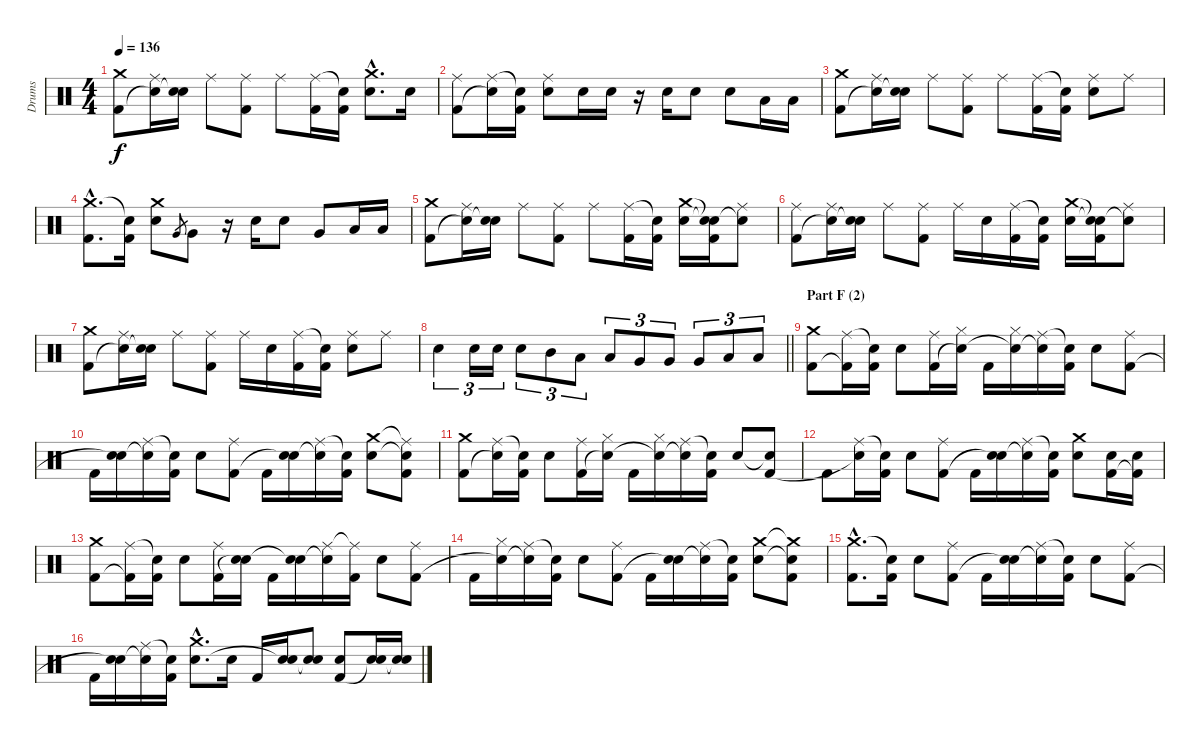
\track ("Drums" "Drums") {instrument percussion}
\staff {score}
\articulation defaults
\ts (4 4)
\tempo 136
\clef neutral
\ks c
("Crash medium (hit)" "Kick (hit) 2").8{dy f} ("Ride (middle)" "Snare (hit)"{t}).16 ("Electric Snare (hit)" "Snare (hit)"{t}).16 "Ride (middle)".8 ("Ride (middle)" "Kick (hit) 2").8 "Ride (middle)".8 ("Ride (middle)" "Kick (hit) 2").16 ("Snare (hit)"{t} "Kick (hit) 2").16 ("Crash medium (hit)"{hac} "Electric Snare (hit)"{hac}).8{d} "Electric Snare (hit)".16 |
("Ride (middle)" "Kick (hit) 2").8 ("Ride (middle)" "Snare (hit)"{t}).16 ("Snare (hit)"{t} "Kick (hit) 2").16 ("Ride (middle)" "Electric Snare (hit)").8 "Electric Snare (hit)".16 "Electric Snare (hit)".16 r.16 "Electric Snare (hit)".16 "Electric Snare (hit)".8 "Electric Snare (hit)".8 "Low Floor Tom (hit)".16 "Low Floor Tom (hit)".16 |
("Crash medium (hit)" "Kick (hit) 2").8 ("Ride (middle)" "Snare (hit)"{t}).16 ("Electric Snare (hit)" "Snare (hit)"{t}).16 "Ride (middle)".8 ("Ride (middle)" "Kick (hit) 2").8 "Ride (middle)".8 ("Ride (middle)" "Kick (hit) 2").16 ("Snare (hit)"{t} "Kick (hit) 2").16 ("Ride (middle)" "Electric Snare (hit)").8 "Ride (middle)".8 |
("Crash medium (hit)"{hac} "Kick (hit) 2"{hac}).8{d} ("Snare (hit)"{t} "Kick (hit) 2").16 ("Crash medium (hit)" "Electric Snare (hit)").8 "Very Low Tom (hit)".8{gr} "Very Low Tom (hit)".8 r.16 "Electric Snare (hit)".16 "Electric Snare (hit)".8 "Very Low Tom (hit)".8 "Low Floor Tom (hit)".16 "Low Floor Tom (hit)".16 |
("Crash medium (hit)" "Kick (hit) 2").8 ("Ride (middle)" "Snare (hit)"{t}).16 ("Electric Snare (hit)" "Snare (hit)"{t}).16 "Ride (middle)".8 ("Ride (middle)" "Kick (hit) 2").8 "Ride (middle)".8 ("Ride (middle)" "Kick (hit) 2").16 ("Snare (hit)"{t} "Kick (hit) 2").16 ("Crash medium (hit)" "Electric Snare (hit)").16 ("Snare (hit)"{t} "Electric Snare (hit)"{t} "Kick (hit) 2").16 ("Ride (middle)" "Snare (hit)"{t}).8 |
("Ride (middle)" "Kick (hit) 2").8 ("Ride (middle)" "Snare (hit)"{t}).16 ("Electric Snare (hit)" "Snare (hit)"{t}).16 "Ride (middle)".8 ("Ride (middle)" "Kick (hit) 2").8 "Ride (middle)".16 "Electric Snare (hit)".16 ("Ride (middle)" "Kick (hit) 2").16 ("Snare (hit)"{t} "Kick (hit) 2").16 ("Crash medium (hit)" "Electric Snare (hit)").16 ("Snare (hit)"{t} "Electric Snare (hit)"{t} "Kick (hit) 2").16 ("Ride (middle)" "Snare (hit)"{t}).8 |
("Crash medium (hit)" "Kick (hit) 2").8 ("Ride (middle)" "Snare (hit)"{t}).16 ("Electric Snare (hit)" "Snare (hit)"{t}).16 "Ride (middle)".8 ("Ride (middle)" "Kick (hit) 2").8 "Ride (middle)".16 "Electric Snare (hit)".16 ("Ride (middle)" "Kick (hit) 2").16 ("Snare (hit)"{t} "Kick (hit) 2").16 ("Ride (middle)" "Electric Snare (hit)").8 "Ride (middle)".8 |
\barLineRight lightlight "Electric Snare (hit)".4{tu (3 2)} "Electric Snare (hit)".16{tu (3 2)} "Electric Snare (hit)".16{tu (3 2)} "Electric Snare (hit)".8{tu (3 2)} "Mid Tom (hit)".8{tu (3 2)} "Low Tom (hit)".8{tu (3 2)} "Low Tom (hit)".8{tu (3 2)} "Very Low Tom (hit)".8{tu (3 2)} "Very Low Tom (hit)".8{tu (3 2)} "Very Low Tom (hit)".8{tu (3 2)} "Low Floor Tom (hit)".8{tu (3 2)} "Low Floor Tom (hit)".8{tu (3 2)}
|
\section ("" "Part F (2)")
("Crash medium (hit)" "Kick (hit) 2").8 ("Ride (middle)" "Kick (hit) 2"{t}).16 ("Snare (hit)"{t} "Kick (hit) 2").16 "Electric Snare (hit)".8 ("Ride (middle)" "Kick (hit) 2").16 ("Hi-Hat (closed)" "Snare (hit)"{t}).16 "Kick (hit) 2".16 ("Hi-Hat (closed)" "Snare (hit)"{t}).16 ("Ride (middle)" "Snare (hit)"{t}).16 ("Snare (hit)"{t} "Kick (hit) 2").16 "Electric Snare (hit)".8 ("Ride (middle)" "Kick (hit) 2").8 |
"Kick (hit) 2".16 ("Electric Snare (hit)" "Snare (hit)"{t}).16 ("Ride (middle)" "Snare (hit)"{t}).16 ("Snare (hit)"{t} "Kick (hit) 2").16 "Electric Snare (hit)".8 ("Ride (middle)" "Kick (hit) 2").8 "Kick (hit) 2".16 ("Electric Snare (hit)" "Snare (hit)"{t}).16 ("Ride (middle)" "Snare (hit)"{t}).16 ("Snare (hit)"{t} "Kick (hit) 2").16 ("Crash medium (hit)" "Electric Snare (hit)").8 ("Ride (middle)"{t} "Snare (hit)"{t} "Kick (hit) 2").8 |
("Crash medium (hit)" "Kick (hit) 2").8 ("Ride (middle)" "Snare (hit)"{t}).16 ("Snare (hit)"{t} "Kick (hit) 2").16 "Electric Snare (hit)".8 ("Ride (middle)" "Kick (hit) 2").16 ("Hi-Hat (closed)" "Snare (hit)"{t}).16 "Kick (hit) 2".16 ("Hi-Hat (closed)" "Snare (hit)"{t}).16 ("Ride (middle)" "Snare (hit)"{t}).16 ("Snare (hit)"{t} "Kick (hit) 2").16 "Electric Snare (hit)".8 ("Snare (hit)"{t} "Kick (hit) 2").8 |
"Kick (hit) 2".8 ("Ride (middle)" "Snare (hit)"{t}).16 ("Snare (hit)"{t} "Kick (hit) 2").16 "Electric Snare (hit)".8 ("Ride (middle)" "Kick (hit) 2").8 "Kick (hit) 2".16 ("Electric Snare (hit)" "Snare (hit)"{t}).16 ("Ride (middle)" "Snare (hit)"{t}).16 ("Snare (hit)"{t} "Kick (hit) 2").16 ("Crash medium (hit)" "Electric Snare (hit)").8 ("Electric Snare (hit)" "Kick (hit) 2").16 ("Electric Snare (hit)" "Kick (hit) 2"{t}).16 |
("Crash medium (hit)" "Kick (hit) 2").8 ("Ride (middle)" "Kick (hit) 2"{t}).16 ("Snare (hit)"{t} "Kick (hit) 2").16 "Electric Snare (hit)".8 ("Ride (middle)" "Kick (hit) 2").16 ("Electric Snare (hit)" "Snare (hit)"{t}).16 "Kick (hit) 2".16 ("Electric Snare (hit)" "Snare (hit)"{t}).16 ("Ride (middle)" "Snare (hit)"{t}).16 ("Ride (middle)"{t} "Kick (hit) 2").16 "Electric Snare (hit)".8 ("Ride (middle)" "Kick (hit) 2").8 |
"Kick (hit) 2".16 ("Hi-Hat (closed)" "Snare (hit)"{t}).16 ("Ride (middle)" "Snare (hit)"{t}).16 ("Snare (hit)"{t} "Kick (hit) 2").16 "Electric Snare (hit)".8 ("Ride (middle)" "Kick (hit) 2").8 "Kick (hit) 2".16 ("Electric Snare (hit)" "Snare (hit)"{t}).16 ("Ride (middle)" "Snare (hit)"{t}).16 ("Snare (hit)"{t} "Kick (hit) 2").16 ("Crash medium (hit)" "Electric Snare (hit)").8 ("Crash medium (hit)"{t} "Snare (hit)"{t} "Kick (hit) 2").8 |
("Crash medium (hit)"{hac} "Kick (hit) 2"{hac}).8{d} ("Snare (hit)"{t} "Kick (hit) 2").16 "Electric Snare (hit)".8 ("Ride (middle)" "Kick (hit) 2").8 "Kick (hit) 2".16 ("Electric Snare (hit)" "Snare (hit)"{t}).16 ("Ride (middle)" "Snare (hit)"{t}).16 ("Snare (hit)"{t} "Kick (hit) 2").16 "Electric Snare (hit)".8 ("Ride (middle)" "Kick (hit) 2").8 |
"Kick (hit) 2".16 ("Electric Snare (hit)" "Snare (hit)"{t}).16 ("Ride (middle)" "Snare (hit)"{t}).16 ("Snare (hit)"{t} "Kick (hit) 2").16 ("Crash medium (hit)"{hac} "Electric Snare (hit)"{hac}).8{d} "Electric Snare (hit)".16 "Kick (hit) 2".16 ("Electric Snare (hit)" "Snare (hit)"{t}).16 ("Electric Snare (hit)" "Snare (hit)"{t}).8 ("Electric Snare (hit)" "Kick (hit) 2").8 ("Electric Snare (hit)" "Snare (hit)"{t}).16 ("Electric Snare (hit)" "Snare (hit)"{t}).16
